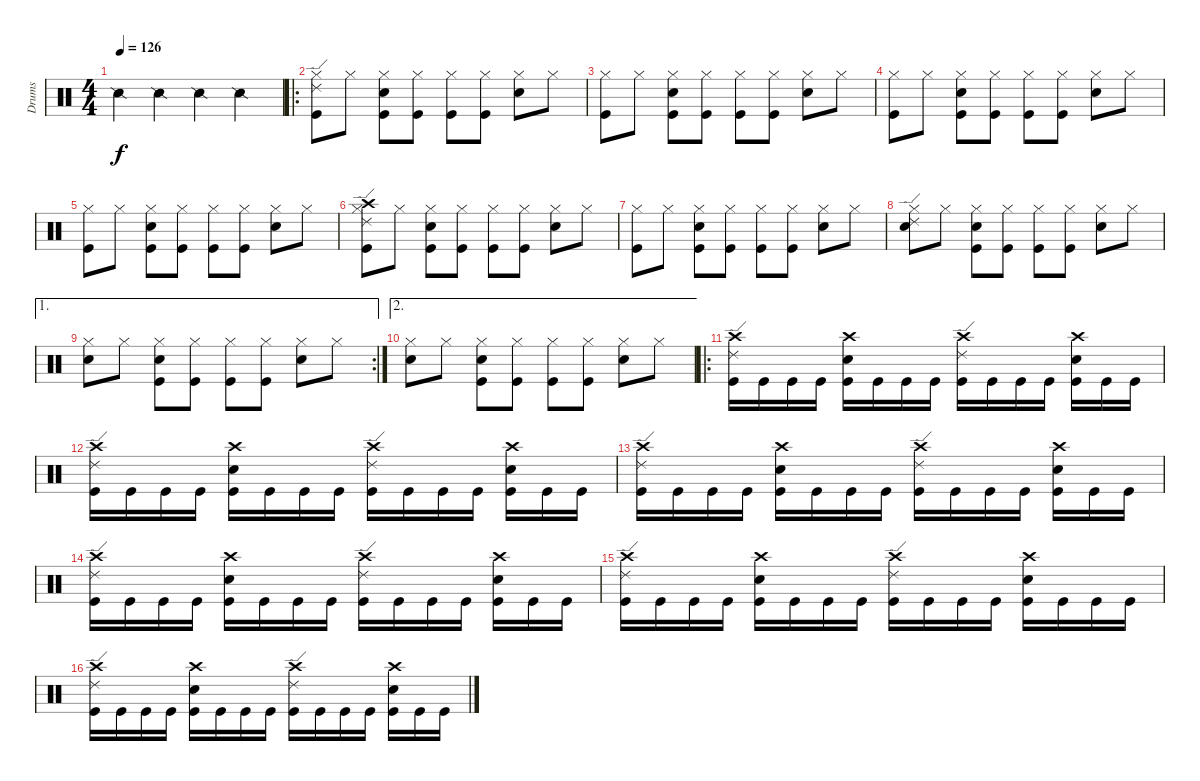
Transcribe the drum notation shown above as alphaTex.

\track ("Drums" "Drums") {instrument percussion}
\staff {score}
\articulation defaults
\ts (4 4)
\tempo 126
\clef neutral
\ks c "Snare (side stick) 2".4{dy f} "Snare (side stick) 2".4 "Snare (side stick) 2".4 "Snare (side stick) 2".4
|
\ro
("Ride (edge) 2" "Hi-Hat (closed)" "Kick (hit)").8 "Hi-Hat (closed)".8 ("Electric Snare (hit)" "Hi-Hat (closed)" "Kick (hit)").8 ("Hi-Hat (closed)" "Kick (hit)").8 ("Hi-Hat (closed)" "Kick (hit)").8 ("Hi-Hat (closed)" "Kick (hit)").8 ("Electric Snare (hit)" "Hi-Hat (closed)").8 "Hi-Hat (closed)".8 |
("Hi-Hat (closed)" "Kick (hit)").8 "Hi-Hat (closed)".8 ("Electric Snare (hit)" "Hi-Hat (closed)" "Kick (hit)").8 ("Hi-Hat (closed)" "Kick (hit)").8 ("Hi-Hat (closed)" "Kick (hit)").8 ("Hi-Hat (closed)" "Kick (hit)").8 ("Electric Snare (hit)" "Hi-Hat (closed)").8 "Hi-Hat (closed)".8 |
("Hi-Hat (closed)" "Kick (hit)").8 "Hi-Hat (closed)".8 ("Electric Snare (hit)" "Hi-Hat (closed)" "Kick (hit)").8 ("Hi-Hat (closed)" "Kick (hit)").8 ("Hi-Hat (closed)" "Kick (hit)").8 ("Hi-Hat (closed)" "Kick (hit)").8 ("Electric Snare (hit)" "Hi-Hat (closed)").8 "Hi-Hat (closed)".8 |
("Hi-Hat (closed)" "Kick (hit)").8 "Hi-Hat (closed)".8 ("Electric Snare (hit)" "Hi-Hat (closed)" "Kick (hit)").8 ("Hi-Hat (closed)" "Kick (hit)").8 ("Hi-Hat (closed)" "Kick (hit)").8 ("Hi-Hat (closed)" "Kick (hit)").8 ("Electric Snare (hit)" "Hi-Hat (closed)").8 "Hi-Hat (closed)".8 |
("Crash high (hit)" "Ride (edge) 2" "Hi-Hat (closed)" "Kick (hit)").8 "Hi-Hat (closed)".8 ("Electric Snare (hit)" "Hi-Hat (closed)" "Kick (hit)").8 ("Hi-Hat (closed)" "Kick (hit)").8 ("Hi-Hat (closed)" "Kick (hit)").8 ("Hi-Hat (closed)" "Kick (hit)").8 ("Electric Snare (hit)" "Hi-Hat (closed)").8 "Hi-Hat (closed)".8 |
("Hi-Hat (closed)" "Kick (hit)").8 "Hi-Hat (closed)".8 ("Electric Snare (hit)" "Hi-Hat (closed)" "Kick (hit)").8 ("Hi-Hat (closed)" "Kick (hit)").8 ("Hi-Hat (closed)" "Kick (hit)").8 ("Hi-Hat (closed)" "Kick (hit)").8 ("Electric Snare (hit)" "Hi-Hat (closed)").8 "Hi-Hat (closed)".8 |
("Ride (edge) 2" "Hi-Hat (closed)" "Snare (hit)").8 "Hi-Hat (closed)".8 ("Electric Snare (hit)" "Hi-Hat (closed)" "Kick (hit)").8 ("Hi-Hat (closed)" "Kick (hit)").8 ("Hi-Hat (closed)" "Kick (hit)").8 ("Hi-Hat (closed)" "Kick (hit)").8 ("Electric Snare (hit)" "Hi-Hat (closed)").8 "Hi-Hat (closed)".8 |
\ae 1
\rc 2
("Hi-Hat (closed)" "Snare (hit)").8 "Hi-Hat (closed)".8 ("Electric Snare (hit)" "Hi-Hat (closed)" "Kick (hit)").8 ("Hi-Hat (closed)" "Kick (hit)").8 ("Hi-Hat (closed)" "Kick (hit)").8 ("Hi-Hat (closed)" "Kick (hit)").8 ("Electric Snare (hit)" "Hi-Hat (closed)").8 "Hi-Hat (closed)".8 |
\ae 2
("Hi-Hat (closed)" "Snare (hit)").8 "Hi-Hat (closed)".8 ("Electric Snare (hit)" "Hi-Hat (closed)" "Kick (hit)").8 ("Hi-Hat (closed)" "Kick (hit)").8 ("Hi-Hat (closed)" "Kick (hit)").8 ("Hi-Hat (closed)" "Kick (hit)").8 ("Electric Snare (hit)" "Hi-Hat (closed)").8 "Hi-Hat (closed)".8 |
\ro
("Crash high (hit)" "Ride (edge) 2" "Kick (hit)").16 "Kick (hit)".16 "Kick (hit)".16 "Kick (hit)".16 ("Crash high (hit)" "Electric Snare (hit)" "Kick (hit)").16 "Kick (hit)".16 "Kick (hit)".16 "Kick (hit)".16 ("Crash high (hit)" "Ride (edge) 2" "Kick (hit)").16 "Kick (hit)".16 "Kick (hit)".16 "Kick (hit)".16 ("Crash high (hit)" "Electric Snare (hit)" "Kick (hit)").16 "Kick (hit)".16 "Kick (hit)".16 |
("Crash high (hit)" "Ride (edge) 2" "Kick (hit)").16 "Kick (hit)".16 "Kick (hit)".16 "Kick (hit)".16 ("Crash high (hit)" "Electric Snare (hit)" "Kick (hit)").16 "Kick (hit)".16 "Kick (hit)".16 "Kick (hit)".16 ("Crash high (hit)" "Ride (edge) 2" "Kick (hit)").16 "Kick (hit)".16 "Kick (hit)".16 "Kick (hit)".16 ("Crash high (hit)" "Electric Snare (hit)" "Kick (hit)").16 "Kick (hit)".16 "Kick (hit)".16 |
("Crash high (hit)" "Ride (edge) 2" "Kick (hit)").16 "Kick (hit)".16 "Kick (hit)".16 "Kick (hit)".16 ("Crash high (hit)" "Electric Snare (hit)" "Kick (hit)").16 "Kick (hit)".16 "Kick (hit)".16 "Kick (hit)".16 ("Crash high (hit)" "Ride (edge) 2" "Kick (hit)").16 "Kick (hit)".16 "Kick (hit)".16 "Kick (hit)".16 ("Crash high (hit)" "Electric Snare (hit)" "Kick (hit)").16 "Kick (hit)".16 "Kick (hit)".16 |
("Crash high (hit)" "Ride (edge) 2" "Kick (hit)").16 "Kick (hit)".16 "Kick (hit)".16 "Kick (hit)".16 ("Crash high (hit)" "Electric Snare (hit)" "Kick (hit)").16 "Kick (hit)".16 "Kick (hit)".16 "Kick (hit)".16 ("Crash high (hit)" "Ride (edge) 2" "Kick (hit)").16 "Kick (hit)".16 "Kick (hit)".16 "Kick (hit)".16 ("Crash high (hit)" "Electric Snare (hit)" "Kick (hit)").16 "Kick (hit)".16 "Kick (hit)".16 |
("Crash high (hit)" "Ride (edge) 2" "Kick (hit)").16 "Kick (hit)".16 "Kick (hit)".16 "Kick (hit)".16 ("Crash high (hit)" "Electric Snare (hit)" "Kick (hit)").16 "Kick (hit)".16 "Kick (hit)".16 "Kick (hit)".16 ("Crash high (hit)" "Ride (edge) 2" "Kick (hit)").16 "Kick (hit)".16 "Kick (hit)".16 "Kick (hit)".16 ("Crash high (hit)" "Electric Snare (hit)" "Kick (hit)").16 "Kick (hit)".16 "Kick (hit)".16 "Kick (hit)".16 |
("Crash high (hit)" "Ride (edge) 2" "Kick (hit)").16 "Kick (hit)".16 "Kick (hit)".16 "Kick (hit)".16 ("Crash high (hit)" "Electric Snare (hit)" "Kick (hit)").16 "Kick (hit)".16 "Kick (hit)".16 "Kick (hit)".16 ("Crash high (hit)" "Ride (edge) 2" "Kick (hit)").16 "Kick (hit)".16 "Kick (hit)".16 "Kick (hit)".16 ("Crash high (hit)" "Electric Snare (hit)" "Kick (hit)").16 "Kick (hit)".16 "Kick (hit)".16
